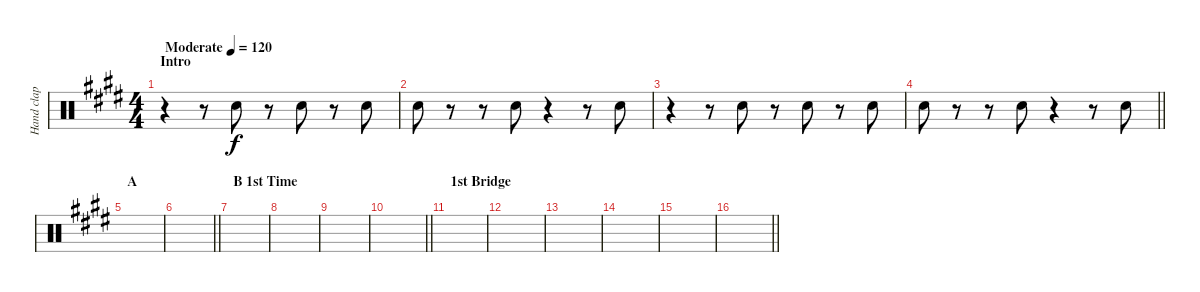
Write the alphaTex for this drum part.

\track ("Hand clap" "Hand clap") {instrument percussion}
\staff {score}
\articulation defaults
\ts (4 4)
\section ("" "Intro")
\tempo (120 "Moderate")
\clef neutral
\ks e
r.4{dy f} r.8 "Hand Clap (hit)".8 r.8 "Hand Clap (hit)".8 r.8 "Hand Clap (hit)".8 |
"Hand Clap (hit)".8 r.8 r.8 "Hand Clap (hit)".8 r.4 r.8 "Hand Clap (hit)".8 |
r.4 r.8 "Hand Clap (hit)".8 r.8 "Hand Clap (hit)".8 r.8 "Hand Clap (hit)".8 |
\barLineRight lightlight "Hand Clap (hit)".8
r.8 r.8 "Hand Clap (hit)".8 r.4 r.8 "Hand Clap (hit)".8 |
\section ("" "A")
|
\barLineRight lightlight
|
\section ("" "B 1st Time")
|
|
|
\barLineRight lightlight
|
\section ("" "1st Bridge")
|
|
|
|
|
\barLineRight lightlight
